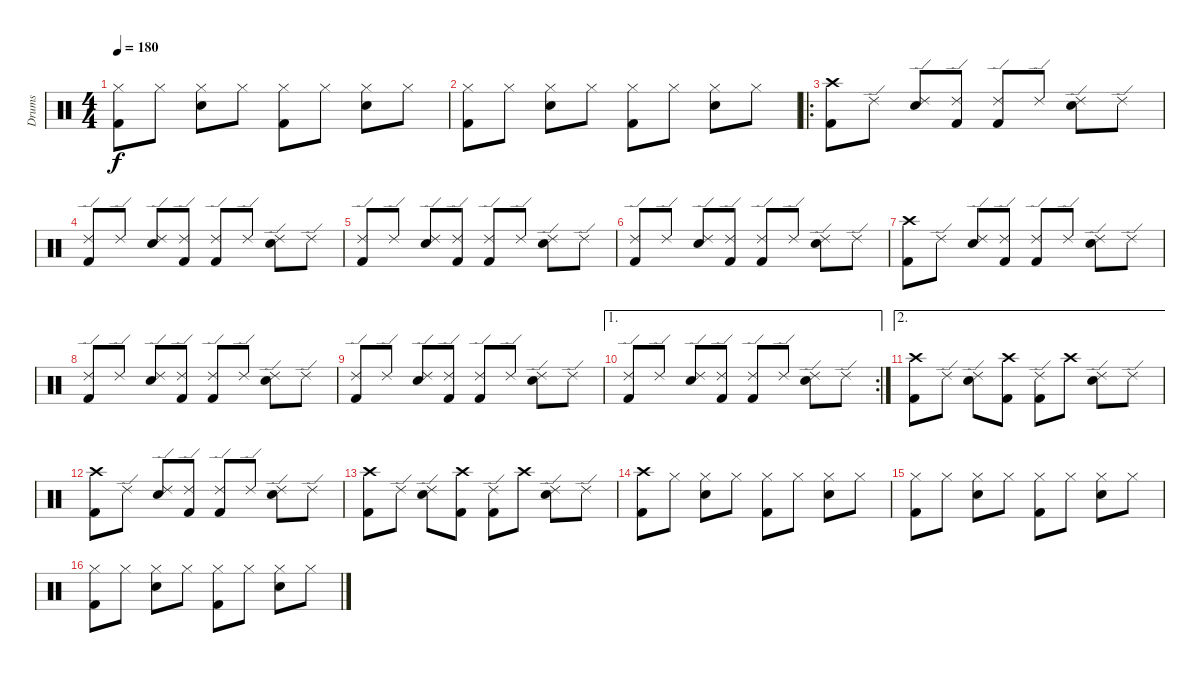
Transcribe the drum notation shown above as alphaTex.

\track ("Drums" "Drums") {instrument percussion}
\staff {score}
\articulation defaults
\ts (4 4)
\tempo 180
\clef neutral
\ks c
("Hi-Hat (closed)" "Kick (hit) 2").8{dy f} "Hi-Hat (closed)".8 ("Hi-Hat (closed)" "Electric Snare (hit)").8 "Hi-Hat (closed)".8 ("Hi-Hat (closed)" "Kick (hit) 2").8 "Hi-Hat (closed)".8 ("Hi-Hat (closed)" "Electric Snare (hit)").8 "Hi-Hat (closed)".8 |
("Hi-Hat (closed)" "Kick (hit) 2").8 "Hi-Hat (closed)".8 ("Hi-Hat (closed)" "Electric Snare (hit)").8 "Hi-Hat (closed)".8 ("Hi-Hat (closed)" "Kick (hit) 2").8 "Hi-Hat (closed)".8 ("Hi-Hat (closed)" "Electric Snare (hit)").8 "Hi-Hat (closed)".8 |
\ro
("Crash high (hit)" "Kick (hit) 2").8 "Ride (edge) 2".8 ("Ride (edge) 2" "Electric Snare (hit)").8 ("Ride (edge) 2" "Kick (hit) 2").8 ("Ride (edge) 2" "Kick (hit) 2").8 "Ride (edge) 2".8 ("Ride (edge) 2" "Electric Snare (hit)").8 "Ride (edge) 2".8 |
("Ride (edge) 2" "Kick (hit) 2").8 "Ride (edge) 2".8 ("Ride (edge) 2" "Electric Snare (hit)").8 ("Ride (edge) 2" "Kick (hit) 2").8 ("Ride (edge) 2" "Kick (hit) 2").8 "Ride (edge) 2".8 ("Ride (edge) 2" "Electric Snare (hit)").8 "Ride (edge) 2".8 |
("Ride (edge) 2" "Kick (hit) 2").8 "Ride (edge) 2".8 ("Ride (edge) 2" "Electric Snare (hit)").8 ("Ride (edge) 2" "Kick (hit) 2").8 ("Ride (edge) 2" "Kick (hit) 2").8 "Ride (edge) 2".8 ("Ride (edge) 2" "Electric Snare (hit)").8 "Ride (edge) 2".8 |
("Ride (edge) 2" "Kick (hit) 2").8 "Ride (edge) 2".8 ("Ride (edge) 2" "Electric Snare (hit)").8 ("Ride (edge) 2" "Kick (hit) 2").8 ("Ride (edge) 2" "Kick (hit) 2").8 "Ride (edge) 2".8 ("Ride (edge) 2" "Electric Snare (hit)").8 "Ride (edge) 2".8 |
("Crash high (hit)" "Kick (hit) 2").8 "Ride (edge) 2".8 ("Ride (edge) 2" "Electric Snare (hit)").8 ("Ride (edge) 2" "Kick (hit) 2").8 ("Ride (edge) 2" "Kick (hit) 2").8 "Ride (edge) 2".8 ("Ride (edge) 2" "Electric Snare (hit)").8 "Ride (edge) 2".8 |
("Ride (edge) 2" "Kick (hit) 2").8 "Ride (edge) 2".8 ("Ride (edge) 2" "Electric Snare (hit)").8 ("Ride (edge) 2" "Kick (hit) 2").8 ("Ride (edge) 2" "Kick (hit) 2").8 "Ride (edge) 2".8 ("Ride (edge) 2" "Electric Snare (hit)").8 "Ride (edge) 2".8 |
("Ride (edge) 2" "Kick (hit) 2").8 "Ride (edge) 2".8 ("Ride (edge) 2" "Electric Snare (hit)").8 ("Ride (edge) 2" "Kick (hit) 2").8 ("Ride (edge) 2" "Kick (hit) 2").8 "Ride (edge) 2".8 ("Ride (edge) 2" "Electric Snare (hit)").8 "Ride (edge) 2".8 |
\ae 1
\rc 2
("Ride (edge) 2" "Kick (hit) 2").8 "Ride (edge) 2".8 ("Ride (edge) 2" "Electric Snare (hit)").8 ("Ride (edge) 2" "Kick (hit) 2").8 ("Ride (edge) 2" "Kick (hit) 2").8 "Ride (edge) 2".8 ("Ride (edge) 2" "Electric Snare (hit)").8 "Ride (edge) 2".8 |
\ae 2
("Crash high (hit)" "Kick (hit) 2").8 "Ride (edge) 2".8 ("Ride (edge) 2" "Electric Snare (hit)").8 ("Crash high (hit)" "Kick (hit) 2").8 ("Ride (edge) 2" "Kick (hit) 2").8 "Crash high (hit)".8 ("Ride (edge) 2" "Electric Snare (hit)").8 "Ride (edge) 2".8 |
("Crash high (hit)" "Kick (hit) 2").8 "Ride (edge) 2".8 ("Ride (edge) 2" "Electric Snare (hit)").8 ("Ride (edge) 2" "Kick (hit) 2").8 ("Ride (edge) 2" "Kick (hit) 2").8 "Ride (edge) 2".8 ("Ride (edge) 2" "Electric Snare (hit)").8 "Ride (edge) 2".8 |
("Crash high (hit)" "Kick (hit) 2").8 "Ride (edge) 2".8 ("Ride (edge) 2" "Electric Snare (hit)").8 ("Crash high (hit)" "Kick (hit) 2").8 ("Ride (edge) 2" "Kick (hit) 2").8 "Crash high (hit)".8 ("Ride (edge) 2" "Electric Snare (hit)").8 "Ride (edge) 2".8 |
("Crash high (hit)" "Kick (hit) 2").8 "Hi-Hat (closed)".8 ("Hi-Hat (closed)" "Electric Snare (hit)").8 "Hi-Hat (closed)".8 ("Hi-Hat (closed)" "Kick (hit) 2").8 "Hi-Hat (closed)".8 ("Hi-Hat (closed)" "Electric Snare (hit)").8 "Hi-Hat (closed)".8 |
("Hi-Hat (closed)" "Kick (hit) 2").8 "Hi-Hat (closed)".8 ("Hi-Hat (closed)" "Electric Snare (hit)").8 "Hi-Hat (closed)".8 ("Hi-Hat (closed)" "Kick (hit) 2").8 "Hi-Hat (closed)".8 ("Hi-Hat (closed)" "Electric Snare (hit)").8 "Hi-Hat (closed)".8 |
("Hi-Hat (closed)" "Kick (hit) 2").8 "Hi-Hat (closed)".8 ("Hi-Hat (closed)" "Electric Snare (hit)").8 "Hi-Hat (closed)".8 ("Hi-Hat (closed)" "Kick (hit) 2").8 "Hi-Hat (closed)".8 ("Hi-Hat (closed)" "Electric Snare (hit)").8 "Hi-Hat (closed)".8
